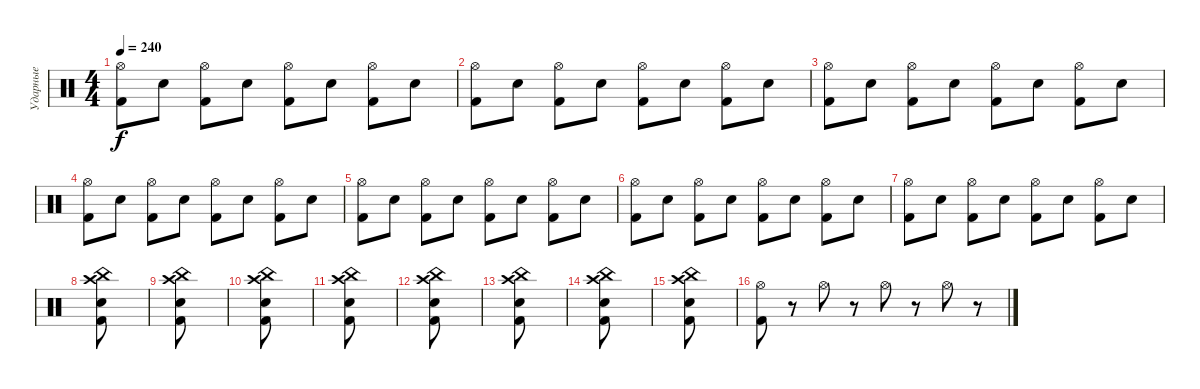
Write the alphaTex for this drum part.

\track ("Ударные" "Ударные") {instrument percussion}
\staff {score}
\articulation defaults
\ts (4 4)
\tempo 240
\clef neutral
\ks c
("Kick (hit) 2" "Hi-Hat (open)").8{dy f} "Electric Snare (hit)".8 ("Kick (hit) 2" "Hi-Hat (open)").8 "Electric Snare (hit)".8 ("Kick (hit) 2" "Hi-Hat (open)").8 "Electric Snare (hit)".8 ("Kick (hit) 2" "Hi-Hat (open)").8 "Electric Snare (hit)".8 |
("Kick (hit) 2" "Hi-Hat (open)").8 "Electric Snare (hit)".8 ("Kick (hit) 2" "Hi-Hat (open)").8 "Electric Snare (hit)".8 ("Kick (hit) 2" "Hi-Hat (open)").8 "Electric Snare (hit)".8 ("Kick (hit) 2" "Hi-Hat (open)").8 "Electric Snare (hit)".8 |
("Kick (hit) 2" "Hi-Hat (open)").8 "Electric Snare (hit)".8 ("Kick (hit) 2" "Hi-Hat (open)").8 "Electric Snare (hit)".8 ("Kick (hit) 2" "Hi-Hat (open)").8 "Electric Snare (hit)".8 ("Kick (hit) 2" "Hi-Hat (open)").8 "Electric Snare (hit)".8 |
("Kick (hit) 2" "Hi-Hat (open)").8 "Electric Snare (hit)".8 ("Kick (hit) 2" "Hi-Hat (open)").8 "Electric Snare (hit)".8 ("Kick (hit) 2" "Hi-Hat (open)").8 "Electric Snare (hit)".8 ("Kick (hit) 2" "Hi-Hat (open)").8 "Electric Snare (hit)".8 |
("Kick (hit) 2" "Hi-Hat (open)").8 "Electric Snare (hit)".8 ("Kick (hit) 2" "Hi-Hat (open)").8 "Electric Snare (hit)".8 ("Kick (hit) 2" "Hi-Hat (open)").8 "Electric Snare (hit)".8 ("Kick (hit) 2" "Hi-Hat (open)").8 "Electric Snare (hit)".8 |
("Kick (hit) 2" "Hi-Hat (open)").8 "Electric Snare (hit)".8 ("Kick (hit) 2" "Hi-Hat (open)").8 "Electric Snare (hit)".8 ("Kick (hit) 2" "Hi-Hat (open)").8 "Electric Snare (hit)".8 ("Kick (hit) 2" "Hi-Hat (open)").8 "Electric Snare (hit)".8 |
("Kick (hit) 2" "Hi-Hat (open)").8 "Electric Snare (hit)".8 ("Kick (hit) 2" "Hi-Hat (open)").8 "Electric Snare (hit)".8 ("Kick (hit) 2" "Hi-Hat (open)").8 "Electric Snare (hit)".8 ("Kick (hit) 2" "Hi-Hat (open)").8 "Electric Snare (hit)".8 |
("Kick (hit) 2" "Electric Snare (hit)" "Crash high (hit)" "China (hit)").8 |
("Kick (hit) 2" "Electric Snare (hit)" "Crash high (hit)" "China (hit)").8 |
("Kick (hit) 2" "Electric Snare (hit)" "Crash high (hit)" "China (hit)").8 |
("Kick (hit) 2" "Electric Snare (hit)" "Crash high (hit)" "China (hit)").8 |
("Kick (hit) 2" "Electric Snare (hit)" "Crash high (hit)" "China (hit)").8 |
("Kick (hit) 2" "Electric Snare (hit)" "Crash high (hit)" "China (hit)").8 |
("Kick (hit) 2" "Electric Snare (hit)" "Crash high (hit)" "China (hit)").8 |
("Kick (hit) 2" "Electric Snare (hit)" "Crash high (hit)" "China (hit)").8 |
("Kick (hit) 2" "Hi-Hat (open)").8 r.8 "Hi-Hat (open)".8 r.8 "Hi-Hat (open)".8 r.8 "Hi-Hat (open)".8 r.8
